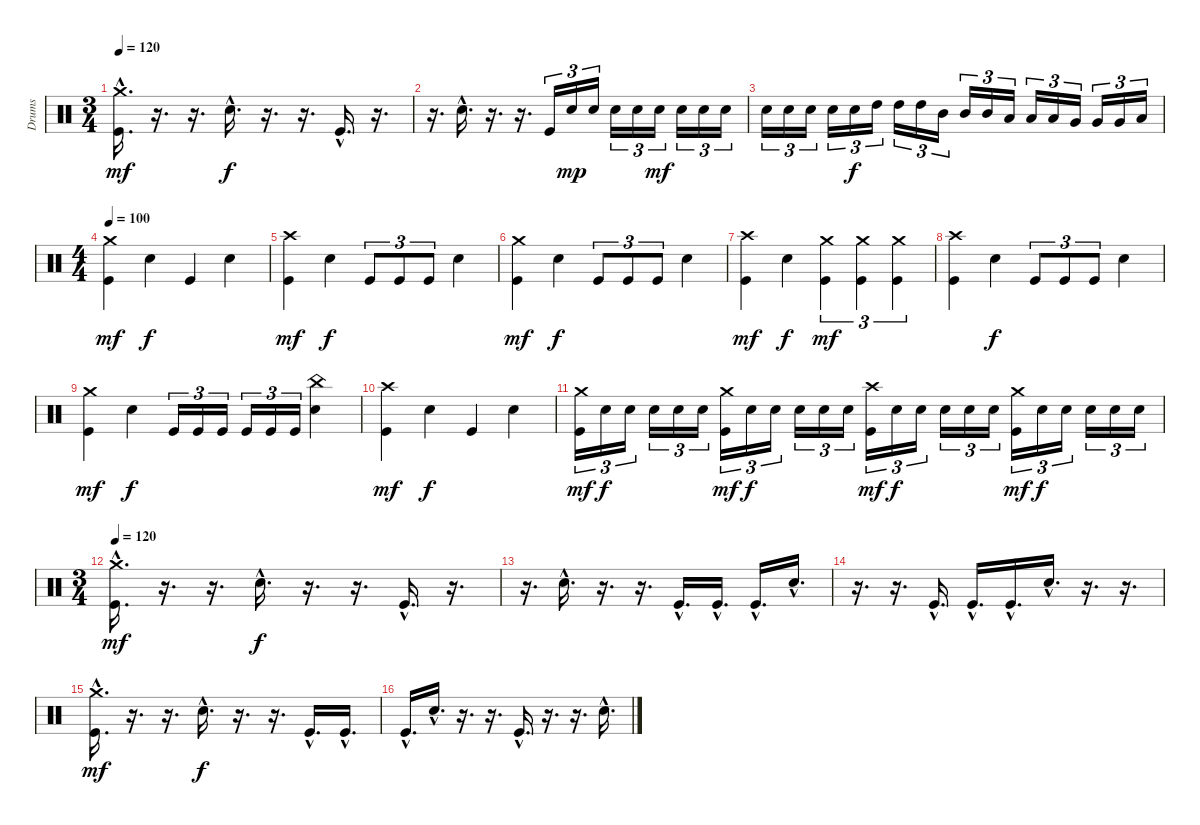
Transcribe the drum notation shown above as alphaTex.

\track ("Drums" "Drums") {instrument percussion}
\staff {score}
\articulation defaults
\ts (3 4)
\tempo 120
\clef neutral
\ks c
("Crash medium (hit)"{hac} "Kick (hit)"{hac}).16{d dy mf} r.16{d} r.16{d} "Electric Snare (hit)"{hac}.16{d dy f} r.16{d} r.16{d} "Kick (hit)"{hac}.16{d} r.16{d} |
r.16{d} "Electric Snare (hit)"{hac}.16{d} r.16{d} r.16{d} "Kick (hit)".16{tu (3 2)} "Electric Snare (hit)".16{tu (3 2) dy mp} "Electric Snare (hit)".16{tu (3 2)} "Electric Snare (hit)".16{tu (3 2)} "Electric Snare (hit)".16{tu (3 2)} "Electric Snare (hit)".16{tu (3 2) dy mf} "Electric Snare (hit)".16{tu (3 2)} "Electric Snare (hit)".16{tu (3 2)} "Electric Snare (hit)".16{tu (3 2)} |
"Electric Snare (hit)".16{tu (3 2)} "Electric Snare (hit)".16{tu (3 2)} "Electric Snare (hit)".16{tu (3 2)} "Electric Snare (hit)".16{tu (3 2)} "Electric Snare (hit)".16{tu (3 2) dy f} "High Tom (hit)".16{tu (3 2)} "High Tom (hit)".16{tu (3 2)} "High Tom (hit)".16{tu (3 2)} "Mid Tom (hit)".16{tu (3 2)} "Mid Tom (hit)".16{tu (3 2)} "Mid Tom (hit)".16{tu (3 2)} "Low Tom (hit)".16{tu (3 2)} "Low Tom (hit)".16{tu (3 2)} "Low Tom (hit)".16{tu (3 2)} "Very Low Tom (hit)".16{tu (3 2)} "Very Low Tom (hit)".16{tu (3 2)} "Very Low Tom (hit)".16{tu (3 2)} "Low Floor Tom (hit)".16{tu (3 2)} |
\ts (4 4)
\section ("" "")
\tempo 100
("Crash medium (hit)" "Kick (hit)").4{dy mf} "Electric Snare (hit)".4{dy f} "Kick (hit)".4 "Electric Snare (hit)".4 |
("Crash high (hit)" "Kick (hit)").4{dy mf} "Electric Snare (hit)".4{dy f} "Kick (hit)".8{tu (3 2)} "Kick (hit)".8{tu (3 2)} "Kick (hit)".8{tu (3 2)} "Electric Snare (hit)".4 |
("Crash medium (hit)" "Kick (hit)").4{dy mf} "Electric Snare (hit)".4{dy f} "Kick (hit)".8{tu (3 2)} "Kick (hit)".8{tu (3 2)} "Kick (hit)".8{tu (3 2)} "Electric Snare (hit)".4 |
("Crash high (hit)" "Kick (hit)").4{dy mf} "Electric Snare (hit)".4{dy f} ("Crash medium (hit)" "Kick (hit)").4{tu (3 2) dy mf} ("Crash medium (hit)" "Kick (hit)").4{tu (3 2)} ("Crash medium (hit)" "Kick (hit)").4{tu (3 2)} |
("Crash high (hit)" "Kick (hit)").4 "Electric Snare (hit)".4{dy f} "Kick (hit)".8{tu (3 2)} "Kick (hit)".8{tu (3 2)} "Kick (hit)".8{tu (3 2)} "Electric Snare (hit)".4 |
("Crash medium (hit)" "Kick (hit)").4{dy mf} "Electric Snare (hit)".4{dy f} "Kick (hit)".16{tu (3 2)} "Kick (hit)".16{tu (3 2)} "Kick (hit)".16{tu (3 2)} "Kick (hit)".16{tu (3 2)} "Kick (hit)".16{tu (3 2)} "Kick (hit)".16{tu (3 2)} ("China (hit)" "Electric Snare (hit)").4 |
("Crash high (hit)" "Kick (hit)").4{dy mf} "Electric Snare (hit)".4{dy f} "Kick (hit)".4 "Electric Snare (hit)".4 |
("Crash medium (hit)" "Kick (hit)").16{tu (3 2) dy mf} "Electric Snare (hit)".16{tu (3 2) dy f} "Electric Snare (hit)".16{tu (3 2)} "Electric Snare (hit)".16{tu (3 2)} "Electric Snare (hit)".16{tu (3 2)} "Electric Snare (hit)".16{tu (3 2)} ("Crash medium (hit)" "Kick (hit)").16{tu (3 2) dy mf} "Electric Snare (hit)".16{tu (3 2) dy f} "Electric Snare (hit)".16{tu (3 2)} "Electric Snare (hit)".16{tu (3 2)} "Electric Snare (hit)".16{tu (3 2)} "Electric Snare (hit)".16{tu (3 2)} ("Crash high (hit)" "Kick (hit)").16{tu (3 2) dy mf} "Electric Snare (hit)".16{tu (3 2) dy f} "Electric Snare (hit)".16{tu (3 2)} "Electric Snare (hit)".16{tu (3 2)} "Electric Snare (hit)".16{tu (3 2)} "Electric Snare (hit)".16{tu (3 2)} ("Crash medium (hit)" "Kick (hit)").16{tu (3 2) dy mf} "Electric Snare (hit)".16{tu (3 2) dy f} "Electric Snare (hit)".16{tu (3 2)} "Electric Snare (hit)".16{tu (3 2)} "Electric Snare (hit)".16{tu (3 2)} "Electric Snare (hit)".16{tu (3 2)} |
\ts (3 4)
\section ("" "")
\tempo 120
("Crash medium (hit)"{hac} "Kick (hit)"{hac}).16{d dy mf} r.16{d} r.16{d} "Electric Snare (hit)"{hac}.16{d dy f} r.16{d} r.16{d} "Kick (hit)"{hac}.16{d} r.16{d} |
r.16{d} "Electric Snare (hit)"{hac}.16{d} r.16{d} r.16{d} "Kick (hit)"{hac}.16{d} "Kick (hit)"{hac}.16{d} "Kick (hit)"{hac}.16{d} "Electric Snare (hit)"{hac}.16{d} |
r.16{d} r.16{d} "Kick (hit)"{hac}.16{d} "Kick (hit)"{hac}.16{d} "Kick (hit)"{hac}.16{d} "Electric Snare (hit)"{hac}.16{d} r.16{d} r.16{d} |
("Crash medium (hit)"{hac} "Kick (hit)"{hac}).16{d dy mf} r.16{d} r.16{d} "Electric Snare (hit)"{hac}.16{d dy f} r.16{d} r.16{d} "Kick (hit)"{hac}.16{d} "Kick (hit)"{hac}.16{d} |
"Kick (hit)"{hac}.16{d} "Electric Snare (hit)"{hac}.16{d} r.16{d} r.16{d} "Kick (hit)"{hac}.16{d} r.16{d} r.16{d} "Electric Snare (hit)"{hac}.16{d}
